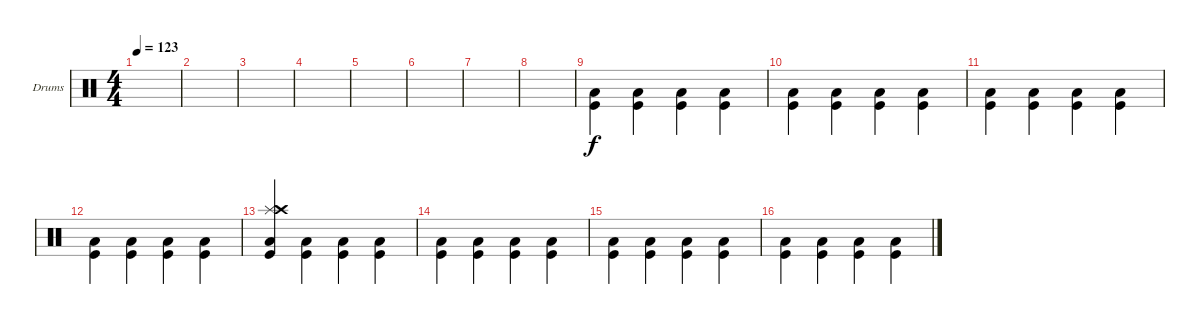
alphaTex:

\defaultSystemsLayout 4
\bracketExtendMode groupsimilarinstruments
\firstSystemTrackNameOrientation horizontal
\otherSystemsTrackNameOrientation horizontal
\track ("Drumkit" "Drums") {instrument percussion}
\staff {score}
\articulation defaults
\ts (4 4)
\tempo 123
\clef neutral
\scale
0.472222
\ks c
|
\scale
0.263889 |
\scale
0.263889 |
\scale
0.333333 |
\scale
0.333333 |
\scale
0.333333 |
\scale
0.333333 |
\scale
0.333333 |
\scale
0.333333 ("Kick (hit)" "Low Tom (hit)").4{beam invert} ("Kick (hit)" "Low Tom (hit)").4{beam invert} ("Kick (hit)" "Low Tom (hit)").4{beam invert} ("Kick (hit)" "Low Tom (hit)").4{beam invert} |
\scale
0.333333 ("Kick (hit)" "Low Tom (hit)").4{beam invert} ("Kick (hit)" "Low Tom (hit)").4{beam invert} ("Kick (hit)" "Low Tom (hit)").4{beam invert} ("Kick (hit)" "Low Tom (hit)").4{beam invert} |
\scale
0.333333 ("Kick (hit)" "Low Tom (hit)").4{beam invert} ("Kick (hit)" "Low Tom (hit)").4{beam invert} ("Kick (hit)" "Low Tom (hit)").4{beam invert} ("Kick (hit)" "Low Tom (hit)").4{beam invert} |
\scale
0.333333 ("Kick (hit)" "Low Tom (hit)").4{beam invert} ("Kick (hit)" "Low Tom (hit)").4{beam invert} ("Kick (hit)" "Low Tom (hit)").4{beam invert} ("Kick (hit)" "Low Tom (hit)").4{beam invert} |
\scale
0.333333 ("Kick (hit)" "Low Tom (hit)" "Splash (hit)" "Crash high (hit)").4{beam invert} ("Kick (hit)" "Low Tom (hit)").4{beam invert} ("Kick (hit)" "Low Tom (hit)").4{beam invert} ("Kick (hit)" "Low Tom (hit)").4{beam invert} |
\scale
0.333333 ("Kick (hit)" "Low Tom (hit)").4{beam invert} ("Kick (hit)" "Low Tom (hit)").4{beam invert} ("Kick (hit)" "Low Tom (hit)").4{beam invert} ("Kick (hit)" "Low Tom (hit)").4{beam invert} |
\scale
0.333333 ("Kick (hit)" "Low Tom (hit)").4{beam invert} ("Kick (hit)" "Low Tom (hit)").4{beam invert} ("Kick (hit)" "Low Tom (hit)").4{beam invert} ("Kick (hit)" "Low Tom (hit)").4{beam invert} |
\scale
0.333333 ("Kick (hit)" "Low Tom (hit)").4{beam invert} ("Kick (hit)" "Low Tom (hit)").4{beam invert} ("Kick (hit)" "Low Tom (hit)").4{beam invert} ("Kick (hit)" "Low Tom (hit)").4{beam invert}
